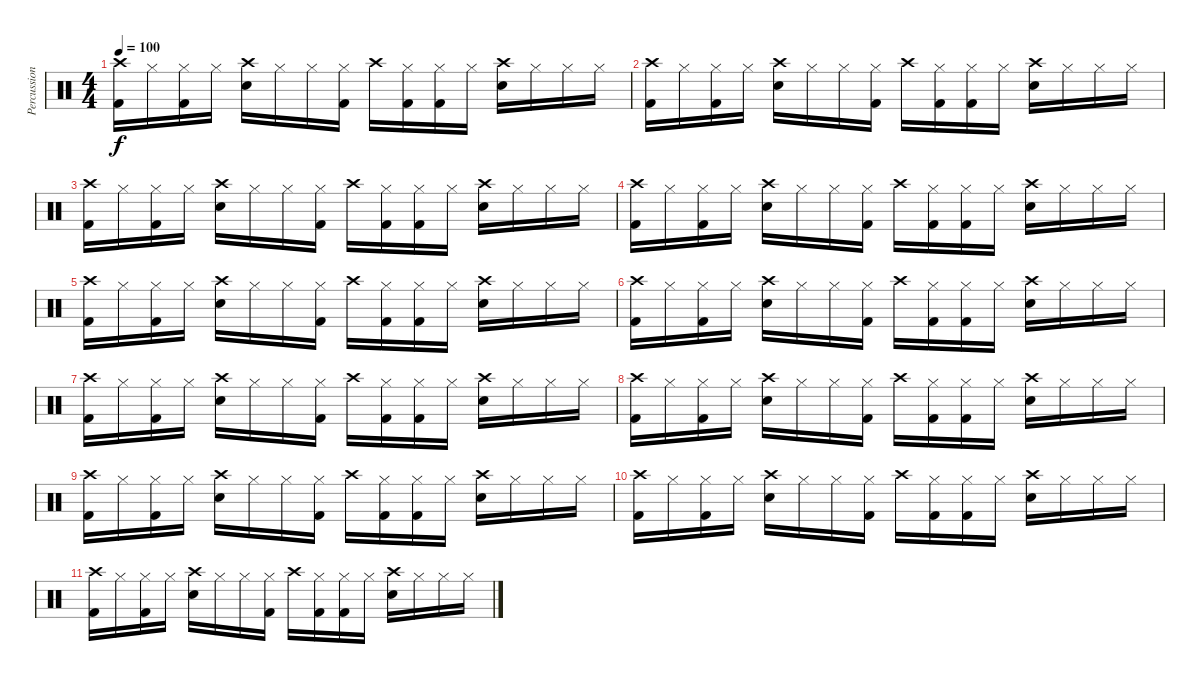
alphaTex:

\track ("Percussion" "Percussion") {instrument percussion}
\staff {score}
\articulation defaults
\ts (4 4)
\tempo 100
\clef neutral
\ks c
("Crash high (hit)" "Kick (hit) 2").16{dy f} "Hi-Hat (closed)".16 ("Hi-Hat (closed)" "Kick (hit) 2").16 "Hi-Hat (closed)".16 ("Crash high (hit)" "Snare (hit) 2").16 "Hi-Hat (closed)".16 "Hi-Hat (closed)".16 ("Hi-Hat (closed)" "Kick (hit) 2").16 "Crash high (hit)".16 ("Hi-Hat (closed)" "Kick (hit) 2").16 ("Hi-Hat (closed)" "Kick (hit) 2").16 "Hi-Hat (closed)".16 ("Crash high (hit)" "Snare (hit) 2").16 "Hi-Hat (closed)".16 "Hi-Hat (closed)".16 "Hi-Hat (closed)".16 |
("Crash high (hit)" "Kick (hit) 2").16 "Hi-Hat (closed)".16 ("Hi-Hat (closed)" "Kick (hit) 2").16 "Hi-Hat (closed)".16 ("Crash high (hit)" "Snare (hit) 2").16 "Hi-Hat (closed)".16 "Hi-Hat (closed)".16 ("Hi-Hat (closed)" "Kick (hit) 2").16 "Crash high (hit)".16 ("Hi-Hat (closed)" "Kick (hit) 2").16 ("Hi-Hat (closed)" "Kick (hit) 2").16 "Hi-Hat (closed)".16 ("Crash high (hit)" "Snare (hit) 2").16 "Hi-Hat (closed)".16 "Hi-Hat (closed)".16 "Hi-Hat (closed)".16 |
("Crash high (hit)" "Kick (hit) 2").16 "Hi-Hat (closed)".16 ("Hi-Hat (closed)" "Kick (hit) 2").16 "Hi-Hat (closed)".16 ("Crash high (hit)" "Snare (hit) 2").16 "Hi-Hat (closed)".16 "Hi-Hat (closed)".16 ("Hi-Hat (closed)" "Kick (hit) 2").16 "Crash high (hit)".16 ("Hi-Hat (closed)" "Kick (hit) 2").16 ("Hi-Hat (closed)" "Kick (hit) 2").16 "Hi-Hat (closed)".16 ("Crash high (hit)" "Snare (hit) 2").16 "Hi-Hat (closed)".16 "Hi-Hat (closed)".16 "Hi-Hat (closed)".16 |
("Crash high (hit)" "Kick (hit) 2").16 "Hi-Hat (closed)".16 ("Hi-Hat (closed)" "Kick (hit) 2").16 "Hi-Hat (closed)".16 ("Crash high (hit)" "Snare (hit) 2").16 "Hi-Hat (closed)".16 "Hi-Hat (closed)".16 ("Hi-Hat (closed)" "Kick (hit) 2").16 "Crash high (hit)".16 ("Hi-Hat (closed)" "Kick (hit) 2").16 ("Hi-Hat (closed)" "Kick (hit) 2").16 "Hi-Hat (closed)".16 ("Crash high (hit)" "Snare (hit) 2").16 "Hi-Hat (closed)".16 "Hi-Hat (closed)".16 "Hi-Hat (closed)".16 |
("Crash high (hit)" "Kick (hit) 2").16 "Hi-Hat (closed)".16 ("Hi-Hat (closed)" "Kick (hit) 2").16 "Hi-Hat (closed)".16 ("Crash high (hit)" "Snare (hit) 2").16 "Hi-Hat (closed)".16 "Hi-Hat (closed)".16 ("Hi-Hat (closed)" "Kick (hit) 2").16 "Crash high (hit)".16 ("Hi-Hat (closed)" "Kick (hit) 2").16 ("Hi-Hat (closed)" "Kick (hit) 2").16 "Hi-Hat (closed)".16 ("Crash high (hit)" "Snare (hit) 2").16 "Hi-Hat (closed)".16 "Hi-Hat (closed)".16 "Hi-Hat (closed)".16 |
("Crash high (hit)" "Kick (hit) 2").16 "Hi-Hat (closed)".16 ("Hi-Hat (closed)" "Kick (hit) 2").16 "Hi-Hat (closed)".16 ("Crash high (hit)" "Snare (hit) 2").16 "Hi-Hat (closed)".16 "Hi-Hat (closed)".16 ("Hi-Hat (closed)" "Kick (hit) 2").16 "Crash high (hit)".16 ("Hi-Hat (closed)" "Kick (hit) 2").16 ("Hi-Hat (closed)" "Kick (hit) 2").16 "Hi-Hat (closed)".16 ("Crash high (hit)" "Snare (hit) 2").16 "Hi-Hat (closed)".16 "Hi-Hat (closed)".16 "Hi-Hat (closed)".16 |
("Crash high (hit)" "Kick (hit) 2").16 "Hi-Hat (closed)".16 ("Hi-Hat (closed)" "Kick (hit) 2").16 "Hi-Hat (closed)".16 ("Crash high (hit)" "Snare (hit) 2").16 "Hi-Hat (closed)".16 "Hi-Hat (closed)".16 ("Hi-Hat (closed)" "Kick (hit) 2").16 "Crash high (hit)".16 ("Hi-Hat (closed)" "Kick (hit) 2").16 ("Hi-Hat (closed)" "Kick (hit) 2").16 "Hi-Hat (closed)".16 ("Crash high (hit)" "Snare (hit) 2").16 "Hi-Hat (closed)".16 "Hi-Hat (closed)".16 "Hi-Hat (closed)".16 |
("Crash high (hit)" "Kick (hit) 2").16 "Hi-Hat (closed)".16 ("Hi-Hat (closed)" "Kick (hit) 2").16 "Hi-Hat (closed)".16 ("Crash high (hit)" "Snare (hit) 2").16 "Hi-Hat (closed)".16 "Hi-Hat (closed)".16 ("Hi-Hat (closed)" "Kick (hit) 2").16 "Crash high (hit)".16 ("Hi-Hat (closed)" "Kick (hit) 2").16 ("Hi-Hat (closed)" "Kick (hit) 2").16 "Hi-Hat (closed)".16 ("Crash high (hit)" "Snare (hit) 2").16 "Hi-Hat (closed)".16 "Hi-Hat (closed)".16 "Hi-Hat (closed)".16 |
("Crash high (hit)" "Kick (hit) 2").16 "Hi-Hat (closed)".16 ("Hi-Hat (closed)" "Kick (hit) 2").16 "Hi-Hat (closed)".16 ("Crash high (hit)" "Snare (hit) 2").16 "Hi-Hat (closed)".16 "Hi-Hat (closed)".16 ("Hi-Hat (closed)" "Kick (hit) 2").16 "Crash high (hit)".16 ("Hi-Hat (closed)" "Kick (hit) 2").16 ("Hi-Hat (closed)" "Kick (hit) 2").16 "Hi-Hat (closed)".16 ("Crash high (hit)" "Snare (hit) 2").16 "Hi-Hat (closed)".16 "Hi-Hat (closed)".16 "Hi-Hat (closed)".16 |
("Crash high (hit)" "Kick (hit) 2").16 "Hi-Hat (closed)".16 ("Hi-Hat (closed)" "Kick (hit) 2").16 "Hi-Hat (closed)".16 ("Crash high (hit)" "Snare (hit) 2").16 "Hi-Hat (closed)".16 "Hi-Hat (closed)".16 ("Hi-Hat (closed)" "Kick (hit) 2").16 "Crash high (hit)".16 ("Hi-Hat (closed)" "Kick (hit) 2").16 ("Hi-Hat (closed)" "Kick (hit) 2").16 "Hi-Hat (closed)".16 ("Crash high (hit)" "Snare (hit) 2").16 "Hi-Hat (closed)".16 "Hi-Hat (closed)".16 "Hi-Hat (closed)".16 |
("Crash high (hit)" "Kick (hit) 2").16 "Hi-Hat (closed)".16 ("Hi-Hat (closed)" "Kick (hit) 2").16 "Hi-Hat (closed)".16 ("Crash high (hit)" "Snare (hit) 2").16 "Hi-Hat (closed)".16 "Hi-Hat (closed)".16 ("Hi-Hat (closed)" "Kick (hit) 2").16 "Crash high (hit)".16 ("Hi-Hat (closed)" "Kick (hit) 2").16 ("Hi-Hat (closed)" "Kick (hit) 2").16 "Hi-Hat (closed)".16 ("Crash high (hit)" "Snare (hit) 2").16 "Hi-Hat (closed)".16 "Hi-Hat (closed)".16 "Hi-Hat (closed)".16
